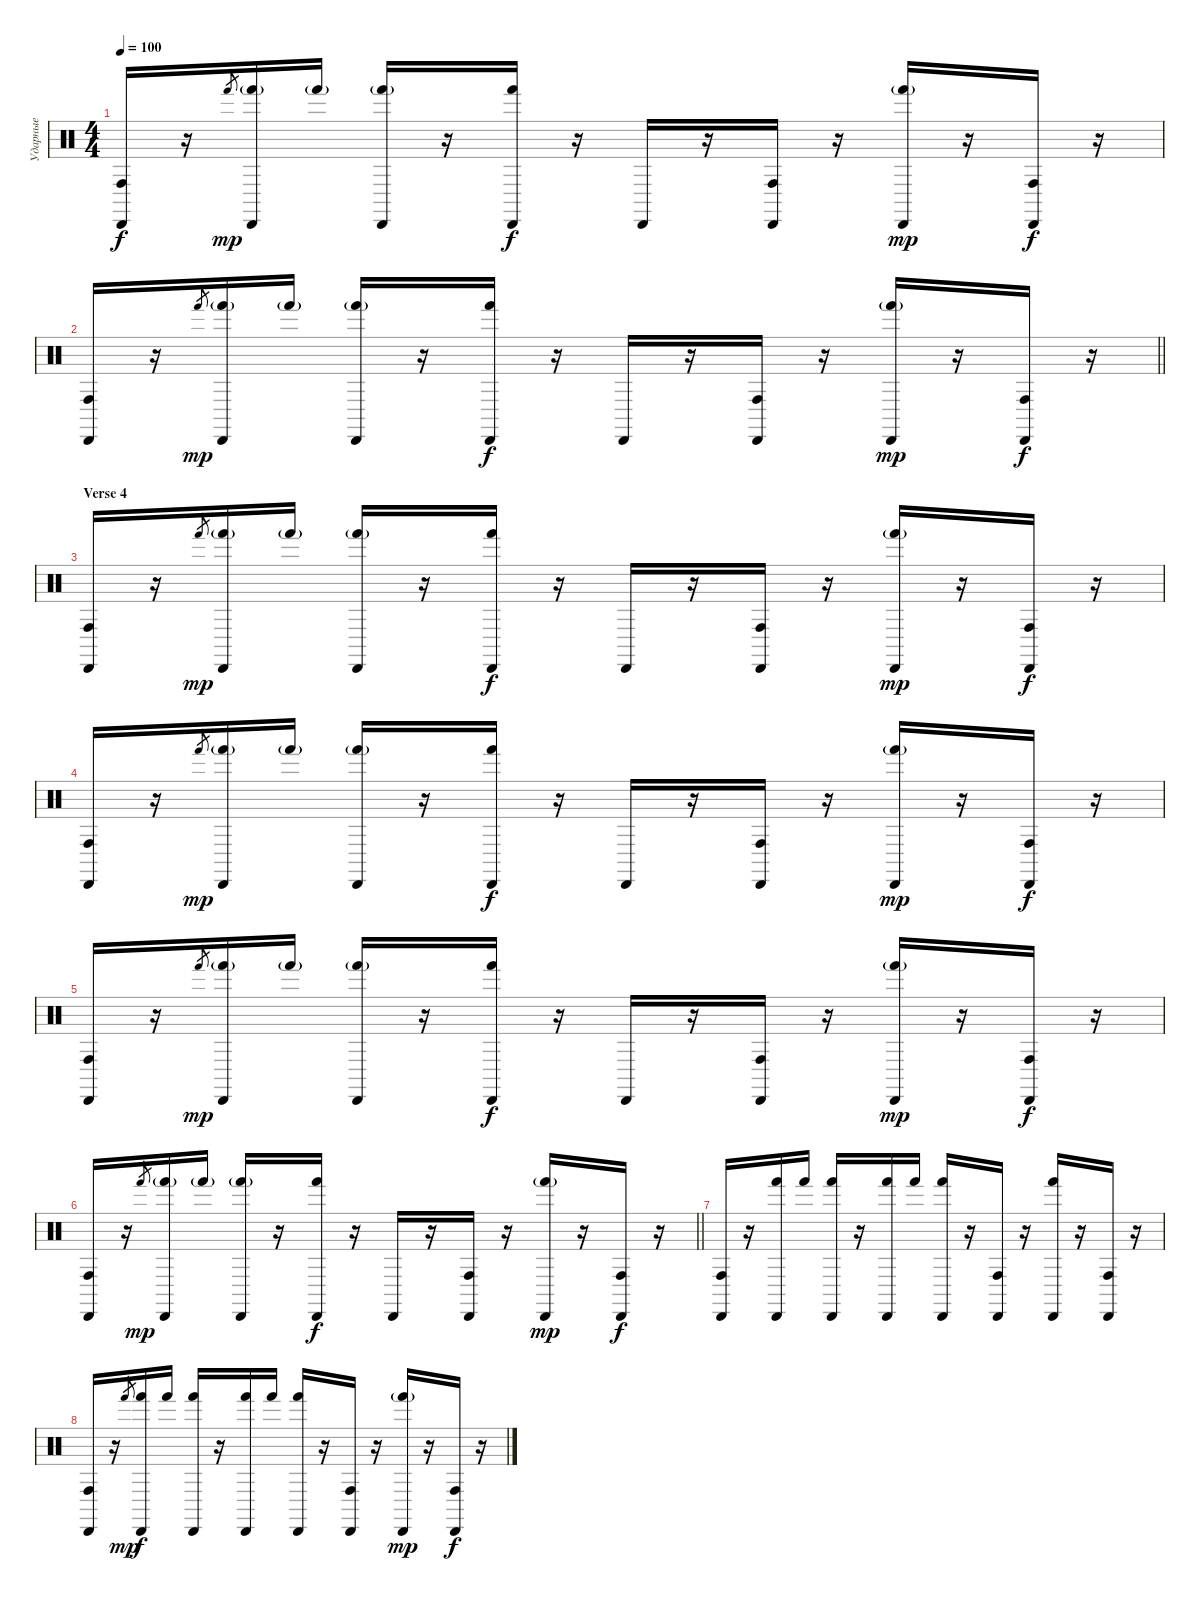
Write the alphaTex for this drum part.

\track ("Ударные" "Ударные") {instrument percussion}
\staff {score}
\articulation defaults
\ts (4 4)
\tempo 100
\clef neutral
\ks c
("Conga high (hit)" "Cabasa (hit)").16{dy f} r.16 "Hand (hit)".8{gr dy mp} ("Hand (hit)"{g} "Cabasa (hit)").16 "Hand (hit)"{g}.16 ("Hand (hit)"{g} "Cabasa (hit)").16 r.16 ("Hand (hit)" "Cabasa (hit)").16{dy f} r.16 "Cabasa (hit)".16 r.16 ("Conga high (hit)" "Cabasa (hit)").16 r.16 ("Hand (hit)"{g} "Cabasa (hit)").16{dy mp} r.16 ("Conga high (hit)" "Cabasa (hit)").16{dy f} r.16 |
\barLineRight lightlight
("Conga high (hit)" "Cabasa (hit)").16 r.16 "Hand (hit)".8{gr dy mp} ("Hand (hit)"{g} "Cabasa (hit)").16 "Hand (hit)"{g}.16 ("Hand (hit)"{g} "Cabasa (hit)").16 r.16 ("Hand (hit)" "Cabasa (hit)").16{dy f} r.16 "Cabasa (hit)".16 r.16 ("Conga high (hit)" "Cabasa (hit)").16 r.16 ("Hand (hit)"{g} "Cabasa (hit)").16{dy mp} r.16 ("Conga high (hit)" "Cabasa (hit)").16{dy f} r.16 |
\section ("" "Verse 4")
("Conga high (hit)" "Cabasa (hit)").16 r.16 "Hand (hit)".8{gr dy mp} ("Hand (hit)"{g} "Cabasa (hit)").16 "Hand (hit)"{g}.16 ("Hand (hit)"{g} "Cabasa (hit)").16 r.16 ("Hand (hit)" "Cabasa (hit)").16{dy f} r.16 "Cabasa (hit)".16 r.16 ("Conga high (hit)" "Cabasa (hit)").16 r.16 ("Hand (hit)"{g} "Cabasa (hit)").16{dy mp} r.16 ("Conga high (hit)" "Cabasa (hit)").16{dy f} r.16 |
("Conga high (hit)" "Cabasa (hit)").16 r.16 "Hand (hit)".8{gr dy mp} ("Hand (hit)"{g} "Cabasa (hit)").16 "Hand (hit)"{g}.16 ("Hand (hit)"{g} "Cabasa (hit)").16 r.16 ("Hand (hit)" "Cabasa (hit)").16{dy f} r.16 "Cabasa (hit)".16 r.16 ("Conga high (hit)" "Cabasa (hit)").16 r.16 ("Hand (hit)"{g} "Cabasa (hit)").16{dy mp} r.16 ("Conga high (hit)" "Cabasa (hit)").16{dy f} r.16 |
("Conga high (hit)" "Cabasa (hit)").16 r.16 "Hand (hit)".8{gr dy mp} ("Hand (hit)"{g} "Cabasa (hit)").16 "Hand (hit)"{g}.16 ("Hand (hit)"{g} "Cabasa (hit)").16 r.16 ("Hand (hit)" "Cabasa (hit)").16{dy f} r.16 "Cabasa (hit)".16 r.16 ("Conga high (hit)" "Cabasa (hit)").16 r.16 ("Hand (hit)"{g} "Cabasa (hit)").16{dy mp} r.16 ("Conga high (hit)" "Cabasa (hit)").16{dy f} r.16 |
\barLineRight lightlight
("Conga high (hit)" "Cabasa (hit)").16 r.16 "Hand (hit)".8{gr dy mp} ("Hand (hit)"{g} "Cabasa (hit)").16 "Hand (hit)"{g}.16 ("Hand (hit)"{g} "Cabasa (hit)").16 r.16 ("Hand (hit)" "Cabasa (hit)").16{dy f} r.16 "Cabasa (hit)".16 r.16 ("Conga high (hit)" "Cabasa (hit)").16 r.16 ("Hand (hit)"{g} "Cabasa (hit)").16{dy mp} r.16 ("Conga high (hit)" "Cabasa (hit)").16{dy f} r.16 |
("Conga high (hit)" "Cabasa (hit)").16 r.16 ("Hand (hit)" "Cabasa (hit)").16 "Hand (hit)".16 ("Hand (hit)" "Cabasa (hit)").16 r.16 ("Hand (hit)" "Cabasa (hit)").16 "Hand (hit)".16 ("Hand (hit)" "Cabasa (hit)").16 r.16 ("Conga high (hit)" "Cabasa (hit)").16 r.16 ("Hand (hit)" "Cabasa (hit)").16 r.16 ("Conga high (hit)" "Cabasa (hit)").16 r.16 |
("Conga high (hit)" "Cabasa (hit)").16 r.16 "Hand (hit)".8{gr dy mp} ("Hand (hit)" "Cabasa (hit)").16{dy f} "Hand (hit)".16 ("Hand (hit)" "Cabasa (hit)").16 r.16 ("Hand (hit)" "Cabasa (hit)").16 "Hand (hit)".16 ("Hand (hit)" "Cabasa (hit)").16 r.16 ("Conga high (hit)" "Cabasa (hit)").16 r.16 ("Hand (hit)"{g} "Cabasa (hit)").16{dy mp} r.16 ("Conga high (hit)" "Cabasa (hit)").16{dy f} r.16
